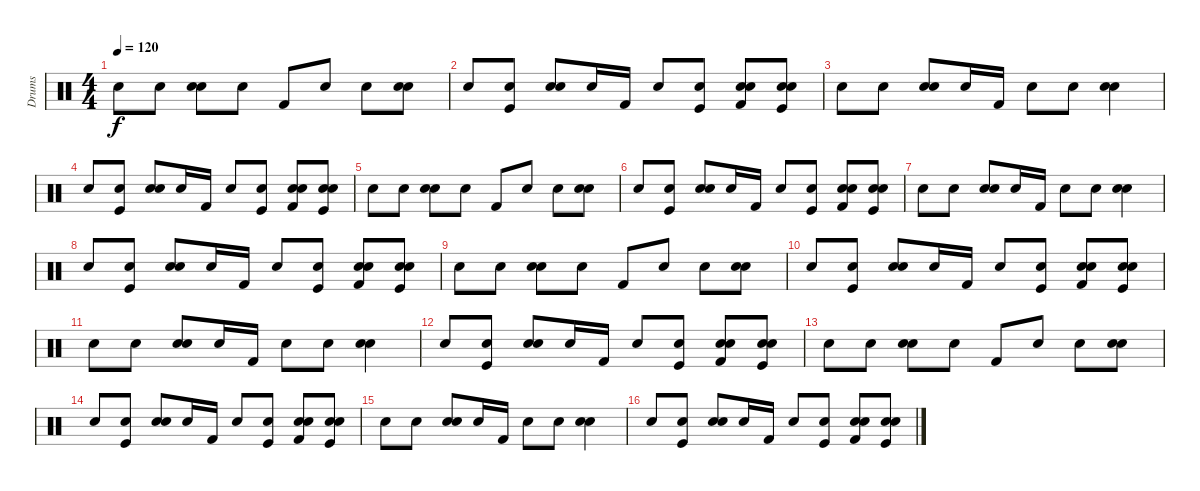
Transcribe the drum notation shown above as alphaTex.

\track ("Drums" "Drums") {instrument percussion}
\staff {score}
\articulation defaults
\ts (4 4)
\tempo 120
\clef neutral
\ks c "Snare (hit) 2".8{dy f} "Snare (hit) 2".8
("Electric Snare (hit)" "Snare (hit) 2").8 "Snare (hit) 2".8 "Kick (hit) 2".8 "Snare (hit) 2".8 "Snare (hit) 2".8 ("Electric Snare (hit)" "Snare (hit) 2").8 |
"Snare (hit) 2".8 ("Snare (hit) 2" "Kick (hit)").8 ("Electric Snare (hit)" "Snare (hit) 2").8 "Snare (hit) 2".16 "Kick (hit) 2".16 "Snare (hit) 2".8 ("Snare (hit) 2" "Kick (hit)").8 ("Electric Snare (hit)" "Snare (hit) 2" "Kick (hit) 2").8 ("Electric Snare (hit)" "Snare (hit) 2" "Kick (hit)").8 |
"Snare (hit) 2".8 "Snare (hit) 2".8 ("Electric Snare (hit)" "Snare (hit) 2").8 "Snare (hit) 2".16 "Kick (hit) 2".16 "Snare (hit) 2".8 "Snare (hit) 2".8 ("Electric Snare (hit)" "Snare (hit) 2").4 |
"Snare (hit) 2".8 ("Snare (hit) 2" "Kick (hit)").8 ("Electric Snare (hit)" "Snare (hit) 2").8 "Snare (hit) 2".16 "Kick (hit) 2".16 "Snare (hit) 2".8 ("Snare (hit) 2" "Kick (hit)").8 ("Electric Snare (hit)" "Snare (hit) 2" "Kick (hit) 2").8 ("Electric Snare (hit)" "Snare (hit) 2" "Kick (hit)").8 |
"Snare (hit) 2".8 "Snare (hit) 2".8 ("Electric Snare (hit)" "Snare (hit) 2").8 "Snare (hit) 2".8 "Kick (hit) 2".8 "Snare (hit) 2".8 "Snare (hit) 2".8 ("Electric Snare (hit)" "Snare (hit) 2").8 |
"Snare (hit) 2".8 ("Snare (hit) 2" "Kick (hit)").8 ("Electric Snare (hit)" "Snare (hit) 2").8 "Snare (hit) 2".16 "Kick (hit) 2".16 "Snare (hit) 2".8 ("Snare (hit) 2" "Kick (hit)").8 ("Electric Snare (hit)" "Snare (hit) 2" "Kick (hit) 2").8 ("Electric Snare (hit)" "Snare (hit) 2" "Kick (hit)").8 |
"Snare (hit) 2".8 "Snare (hit) 2".8 ("Electric Snare (hit)" "Snare (hit) 2").8 "Snare (hit) 2".16 "Kick (hit) 2".16 "Snare (hit) 2".8 "Snare (hit) 2".8 ("Electric Snare (hit)" "Snare (hit) 2").4 |
"Snare (hit) 2".8 ("Snare (hit) 2" "Kick (hit)").8 ("Electric Snare (hit)" "Snare (hit) 2").8 "Snare (hit) 2".16 "Kick (hit) 2".16 "Snare (hit) 2".8 ("Snare (hit) 2" "Kick (hit)").8 ("Electric Snare (hit)" "Snare (hit) 2" "Kick (hit) 2").8 ("Electric Snare (hit)" "Snare (hit) 2" "Kick (hit)").8 |
"Snare (hit) 2".8 "Snare (hit) 2".8 ("Electric Snare (hit)" "Snare (hit) 2").8 "Snare (hit) 2".8 "Kick (hit) 2".8 "Snare (hit) 2".8 "Snare (hit) 2".8 ("Electric Snare (hit)" "Snare (hit) 2").8 |
"Snare (hit) 2".8 ("Snare (hit) 2" "Kick (hit)").8 ("Electric Snare (hit)" "Snare (hit) 2").8 "Snare (hit) 2".16 "Kick (hit) 2".16 "Snare (hit) 2".8 ("Snare (hit) 2" "Kick (hit)").8 ("Electric Snare (hit)" "Snare (hit) 2" "Kick (hit) 2").8 ("Electric Snare (hit)" "Snare (hit) 2" "Kick (hit)").8 |
"Snare (hit) 2".8 "Snare (hit) 2".8 ("Electric Snare (hit)" "Snare (hit) 2").8 "Snare (hit) 2".16 "Kick (hit) 2".16 "Snare (hit) 2".8 "Snare (hit) 2".8 ("Electric Snare (hit)" "Snare (hit) 2").4 |
"Snare (hit) 2".8 ("Snare (hit) 2" "Kick (hit)").8 ("Electric Snare (hit)" "Snare (hit) 2").8 "Snare (hit) 2".16 "Kick (hit) 2".16 "Snare (hit) 2".8 ("Snare (hit) 2" "Kick (hit)").8 ("Electric Snare (hit)" "Snare (hit) 2" "Kick (hit) 2").8 ("Electric Snare (hit)" "Snare (hit) 2" "Kick (hit)").8 |
"Snare (hit) 2".8 "Snare (hit) 2".8 ("Electric Snare (hit)" "Snare (hit) 2").8 "Snare (hit) 2".8 "Kick (hit) 2".8 "Snare (hit) 2".8 "Snare (hit) 2".8 ("Electric Snare (hit)" "Snare (hit) 2").8 |
"Snare (hit) 2".8 ("Snare (hit) 2" "Kick (hit)").8 ("Electric Snare (hit)" "Snare (hit) 2").8 "Snare (hit) 2".16 "Kick (hit) 2".16 "Snare (hit) 2".8 ("Snare (hit) 2" "Kick (hit)").8 ("Electric Snare (hit)" "Snare (hit) 2" "Kick (hit) 2").8 ("Electric Snare (hit)" "Snare (hit) 2" "Kick (hit)").8 |
"Snare (hit) 2".8 "Snare (hit) 2".8 ("Electric Snare (hit)" "Snare (hit) 2").8 "Snare (hit) 2".16 "Kick (hit) 2".16 "Snare (hit) 2".8 "Snare (hit) 2".8 ("Electric Snare (hit)" "Snare (hit) 2").4 |
"Snare (hit) 2".8 ("Snare (hit) 2" "Kick (hit)").8 ("Electric Snare (hit)" "Snare (hit) 2").8 "Snare (hit) 2".16 "Kick (hit) 2".16 "Snare (hit) 2".8 ("Snare (hit) 2" "Kick (hit)").8 ("Electric Snare (hit)" "Snare (hit) 2" "Kick (hit) 2").8 ("Electric Snare (hit)" "Snare (hit) 2" "Kick (hit)").8
